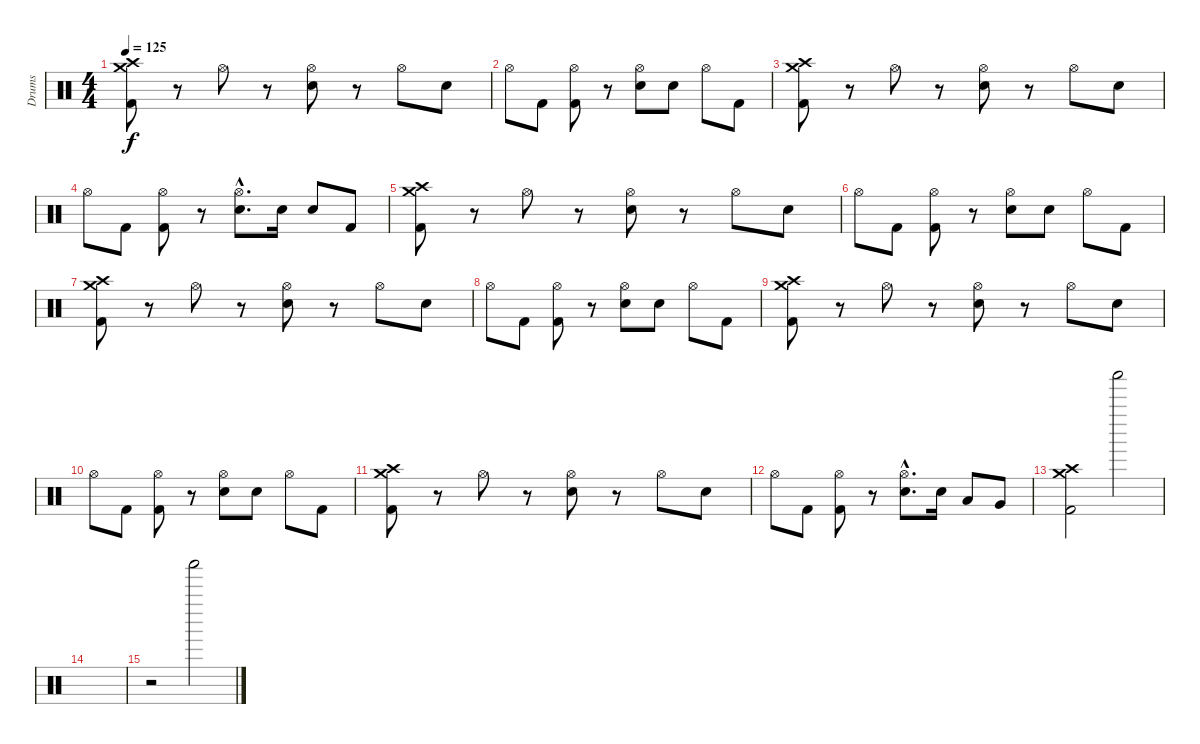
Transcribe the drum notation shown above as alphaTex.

\track ("Drums" "Drums") {instrument percussion}
\staff {score}
\articulation defaults
\ts (4 4)
\tempo 125
\clef neutral
\ks c
("Crash medium (hit)" "Crash high (hit)" "Kick (hit) 2").8{dy f} r.8 "Hi-Hat (open)".8 r.8 ("Hi-Hat (open)" "Electric Snare (hit)").8 r.8 "Hi-Hat (open)".8 "Electric Snare (hit)".8 |
"Hi-Hat (open)".8 "Kick (hit) 2".8 ("Hi-Hat (open)" "Kick (hit) 2").8 r.8 ("Hi-Hat (open)" "Electric Snare (hit)").8 "Electric Snare (hit)".8 "Hi-Hat (open)".8 "Kick (hit) 2".8 |
("Crash medium (hit)" "Crash high (hit)" "Kick (hit) 2").8 r.8 "Hi-Hat (open)".8 r.8 ("Hi-Hat (open)" "Electric Snare (hit)").8 r.8 "Hi-Hat (open)".8 "Electric Snare (hit)".8 |
"Hi-Hat (open)".8 "Kick (hit) 2".8 ("Hi-Hat (open)" "Kick (hit) 2").8 r.8 ("Hi-Hat (open)"{hac} "Electric Snare (hit)"{hac}).8{d} "Electric Snare (hit)".16 "Electric Snare (hit)".8 "Kick (hit) 2".8 |
("Crash medium (hit)" "Crash high (hit)" "Kick (hit) 2").8 r.8 "Hi-Hat (open)".8 r.8 ("Hi-Hat (open)" "Electric Snare (hit)").8 r.8 "Hi-Hat (open)".8 "Electric Snare (hit)".8 |
"Hi-Hat (open)".8 "Kick (hit) 2".8 ("Hi-Hat (open)" "Kick (hit) 2").8 r.8 ("Hi-Hat (open)" "Electric Snare (hit)").8 "Electric Snare (hit)".8 "Hi-Hat (open)".8 "Kick (hit) 2".8 |
("Crash medium (hit)" "Crash high (hit)" "Kick (hit) 2").8 r.8 "Hi-Hat (open)".8 r.8 ("Hi-Hat (open)" "Electric Snare (hit)").8 r.8 "Hi-Hat (open)".8 "Electric Snare (hit)".8 |
"Hi-Hat (open)".8 "Kick (hit) 2".8 ("Hi-Hat (open)" "Kick (hit) 2").8 r.8 ("Hi-Hat (open)" "Electric Snare (hit)").8 "Electric Snare (hit)".8 "Hi-Hat (open)".8 "Kick (hit) 2".8 |
("Crash medium (hit)" "Crash high (hit)" "Kick (hit) 2").8 r.8 "Hi-Hat (open)".8 r.8 ("Hi-Hat (open)" "Electric Snare (hit)").8 r.8 "Hi-Hat (open)".8 "Electric Snare (hit)".8 |
"Hi-Hat (open)".8 "Kick (hit) 2".8 ("Hi-Hat (open)" "Kick (hit) 2").8 r.8 ("Hi-Hat (open)" "Electric Snare (hit)").8 "Electric Snare (hit)".8 "Hi-Hat (open)".8 "Kick (hit) 2".8 |
("Crash medium (hit)" "Crash high (hit)" "Kick (hit) 2").8 r.8 "Hi-Hat (open)".8 r.8 ("Hi-Hat (open)" "Electric Snare (hit)").8 r.8 "Hi-Hat (open)".8 "Electric Snare (hit)".8 |
"Hi-Hat (open)".8 "Kick (hit) 2".8 ("Hi-Hat (open)" "Kick (hit) 2").8 r.8 ("Hi-Hat (open)"{hac} "Electric Snare (hit)"{hac}).8{d} "Electric Snare (hit)".16 "Low Tom (hit)".8 "Very Low Tom (hit)".8 |
("Crash medium (hit)" "Crash high (hit)" "Kick (hit) 2").2 "Shaker (hit)".2 |
|
r.2 "Shaker (hit)".2
